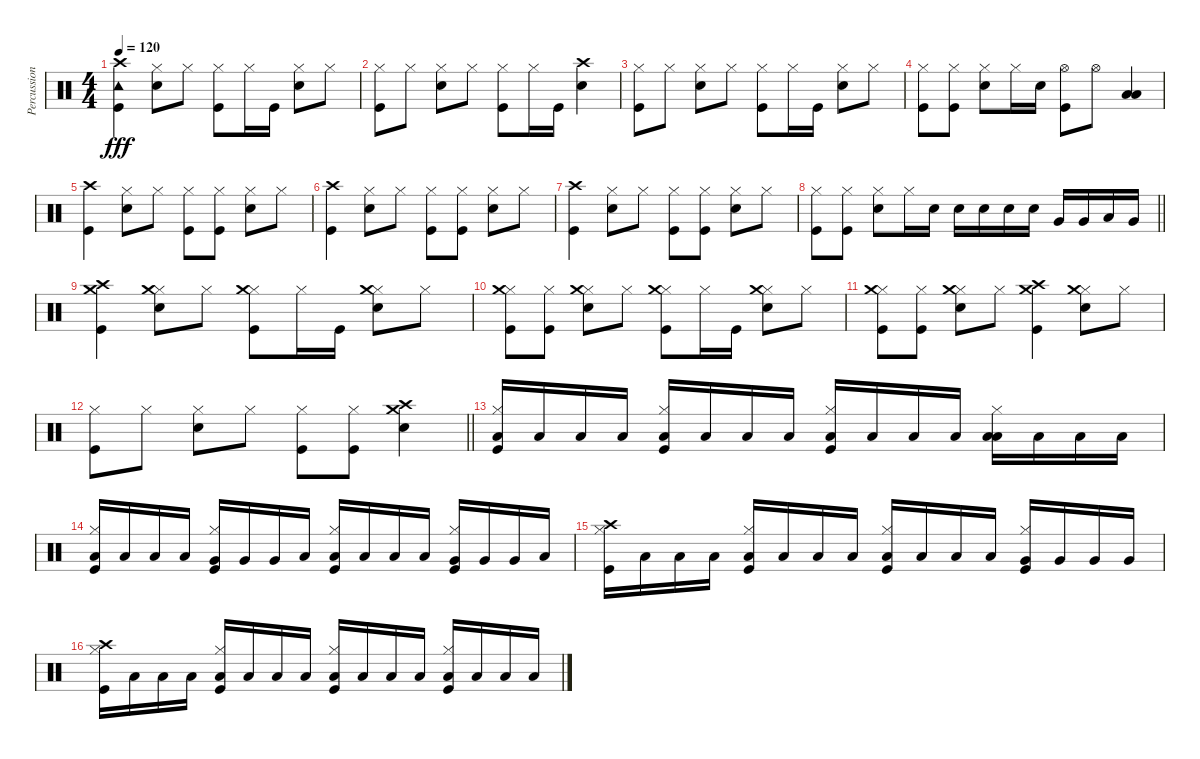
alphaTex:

\track ("Percussioni" "Percussion") {instrument percussion}
\staff {score}
\articulation defaults
\ts (4 4)
\tempo 120
\clef neutral
\ks c
("Crash high (hit)" "Tambourine (hit)" "Kick (hit)").4{dy fff} ("Hi-Hat (closed)" "Snare (hit) 2").8 "Hi-Hat (closed)".8 ("Hi-Hat (closed)" "Kick (hit)").8 "Hi-Hat (closed)".16 "Kick (hit)".16 ("Hi-Hat (closed)" "Snare (hit) 2").8 "Hi-Hat (closed)".8 |
("Hi-Hat (closed)" "Kick (hit)").8 "Hi-Hat (closed)".8 ("Hi-Hat (closed)" "Snare (hit) 2").8 "Hi-Hat (closed)".8 ("Hi-Hat (closed)" "Kick (hit)").8 "Hi-Hat (closed)".16 "Kick (hit)".16 ("Crash high (hit)" "Snare (hit) 2").4 |
("Hi-Hat (closed)" "Kick (hit)").8 "Hi-Hat (closed)".8 ("Hi-Hat (closed)" "Snare (hit) 2").8 "Hi-Hat (closed)".8 ("Hi-Hat (closed)" "Kick (hit)").8 "Hi-Hat (closed)".16 "Kick (hit)".16 ("Hi-Hat (closed)" "Snare (hit) 2").8 "Hi-Hat (closed)".8 |
("Hi-Hat (closed)" "Kick (hit)").8 ("Hi-Hat (closed)" "Kick (hit)").8 ("Hi-Hat (closed)" "Snare (hit) 2").8 "Hi-Hat (closed)".16 "Snare (hit) 2".16 ("Hi-Hat (open)" "Kick (hit)").8 "Hi-Hat (open)".8 ("Low Tom (hit)" "Low Floor Tom (hit)").4 |
("Crash high (hit)" "Kick (hit)").4 ("Hi-Hat (closed)" "Snare (hit) 2").8 "Hi-Hat (closed)".8 ("Hi-Hat (closed)" "Kick (hit)").8 ("Hi-Hat (closed)" "Kick (hit)").8 ("Hi-Hat (closed)" "Snare (hit) 2").8 "Hi-Hat (closed)".8 |
("Crash high (hit)" "Kick (hit)").4 ("Hi-Hat (closed)" "Snare (hit) 2").8 "Hi-Hat (closed)".8 ("Hi-Hat (closed)" "Kick (hit)").8 ("Hi-Hat (closed)" "Kick (hit)").8 ("Hi-Hat (closed)" "Snare (hit) 2").8 "Hi-Hat (closed)".8 |
("Crash high (hit)" "Kick (hit)").4 ("Hi-Hat (closed)" "Snare (hit) 2").8 "Hi-Hat (closed)".8 ("Hi-Hat (closed)" "Kick (hit)").8 ("Hi-Hat (closed)" "Kick (hit)").8 ("Hi-Hat (closed)" "Snare (hit) 2").8 "Hi-Hat (closed)".8 |
\barLineRight lightlight
("Hi-Hat (closed)" "Kick (hit)").8 ("Hi-Hat (closed)" "Kick (hit)").8 ("Hi-Hat (closed)" "Snare (hit) 2").8 "Hi-Hat (closed)".16 "Snare (hit) 2".16 "Snare (hit) 2".16 "Snare (hit) 2".16 "Snare (hit) 2".16 "Snare (hit) 2".16 "Very Low Tom (hit)".16 "Very Low Tom (hit)".16 "Low Floor Tom (hit)".16 "Very Low Tom (hit)".16 |
("Crash high (hit)" "Crash medium (hit)" "Kick (hit)").4 ("Hi-Hat (closed)" "Crash medium (hit)" "Snare (hit) 2").8 "Hi-Hat (closed)".8 ("Hi-Hat (closed)" "Crash medium (hit)" "Kick (hit)").8 "Hi-Hat (closed)".16 "Kick (hit)".16 ("Hi-Hat (closed)" "Crash medium (hit)" "Snare (hit) 2").8 "Hi-Hat (closed)".8 |
("Hi-Hat (closed)" "Crash medium (hit)" "Kick (hit)").8 ("Hi-Hat (closed)" "Kick (hit)").8 ("Hi-Hat (closed)" "Crash medium (hit)" "Snare (hit) 2").8 "Hi-Hat (closed)".8 ("Hi-Hat (closed)" "Crash medium (hit)" "Kick (hit)").8 "Hi-Hat (closed)".16 "Kick (hit)".16 ("Hi-Hat (closed)" "Crash medium (hit)" "Snare (hit) 2").8 "Hi-Hat (closed)".8 |
("Hi-Hat (closed)" "Crash medium (hit)" "Kick (hit)").8 ("Hi-Hat (closed)" "Kick (hit)").8 ("Hi-Hat (closed)" "Crash medium (hit)" "Snare (hit) 2").8 "Hi-Hat (closed)".8 ("Crash high (hit)" "Crash medium (hit)" "Kick (hit)").4 ("Hi-Hat (closed)" "Crash medium (hit)" "Snare (hit) 2").8 "Hi-Hat (closed)".8 |
\barLineRight lightlight
("Hi-Hat (closed)" "Kick (hit)").8 "Hi-Hat (closed)".8 ("Hi-Hat (closed)" "Snare (hit) 2").8 "Hi-Hat (closed)".8 ("Hi-Hat (closed)" "Kick (hit)").8 ("Hi-Hat (closed)" "Kick (hit)").8 ("Crash high (hit)" "Crash medium (hit)" "Snare (hit) 2").4 |
("Hi-Hat (closed)" "Low Tom (hit)" "Kick (hit)").16 "Low Tom (hit)".16 "Low Tom (hit)".16 "Low Tom (hit)".16 ("Hi-Hat (closed)" "Low Floor Tom (hit)" "Kick (hit)").16 "Low Floor Tom (hit)".16 "Low Floor Tom (hit)".16 "Low Tom (hit)".16 ("Hi-Hat (closed)" "Low Tom (hit)" "Kick (hit)").16 "Low Tom (hit)".16 "Low Tom (hit)".16 "Low Tom (hit)".16 ("Hi-Hat (closed)" "Low Floor Tom (hit)" "Low Floor Tom (hit)").16 "Low Floor Tom (hit)".16 "Low Floor Tom (hit)".16 "Low Tom (hit)".16 |
("Hi-Hat (closed)" "Low Tom (hit)" "Kick (hit)").16 "Low Tom (hit)".16 "Low Tom (hit)".16 "Low Tom (hit)".16 ("Hi-Hat (closed)" "Very Low Tom (hit)" "Kick (hit)").16 "Very Low Tom (hit)".16 "Very Low Tom (hit)".16 "Low Tom (hit)".16 ("Hi-Hat (closed)" "Low Tom (hit)" "Kick (hit)").16 "Low Tom (hit)".16 "Low Tom (hit)".16 "Low Tom (hit)".16 ("Hi-Hat (closed)" "Very Low Tom (hit)" "Kick (hit)").16 "Very Low Tom (hit)".16 "Very Low Tom (hit)".16 "Low Tom (hit)".16 |
("Hi-Hat (closed)" "Crash high (hit)" "Kick (hit)").16 "Low Tom (hit)".16 "Low Tom (hit)".16 "Low Tom (hit)".16 ("Hi-Hat (closed)" "Low Tom (hit)" "Kick (hit)").16 "Low Tom (hit)".16 "Low Tom (hit)".16 "Low Tom (hit)".16 ("Hi-Hat (closed)" "Low Tom (hit)" "Kick (hit)").16 "Low Tom (hit)".16 "Low Tom (hit)".16 "Low Tom (hit)".16 ("Hi-Hat (closed)" "Very Low Tom (hit)" "Kick (hit)").16 "Very Low Tom (hit)".16 "Very Low Tom (hit)".16 "Very Low Tom (hit)".16 |
("Hi-Hat (closed)" "Crash high (hit)" "Kick (hit)").16 "Low Tom (hit)".16 "Low Tom (hit)".16 "Low Tom (hit)".16 ("Hi-Hat (closed)" "Low Tom (hit)" "Kick (hit)").16 "Low Tom (hit)".16 "Low Tom (hit)".16 "Low Tom (hit)".16 ("Hi-Hat (closed)" "Low Tom (hit)" "Kick (hit)").16 "Low Tom (hit)".16 "Low Tom (hit)".16 "Low Tom (hit)".16 ("Hi-Hat (closed)" "Low Tom (hit)" "Kick (hit)").16 "Low Tom (hit)".16 "Low Floor Tom (hit)".16 "Low Tom (hit)".16
